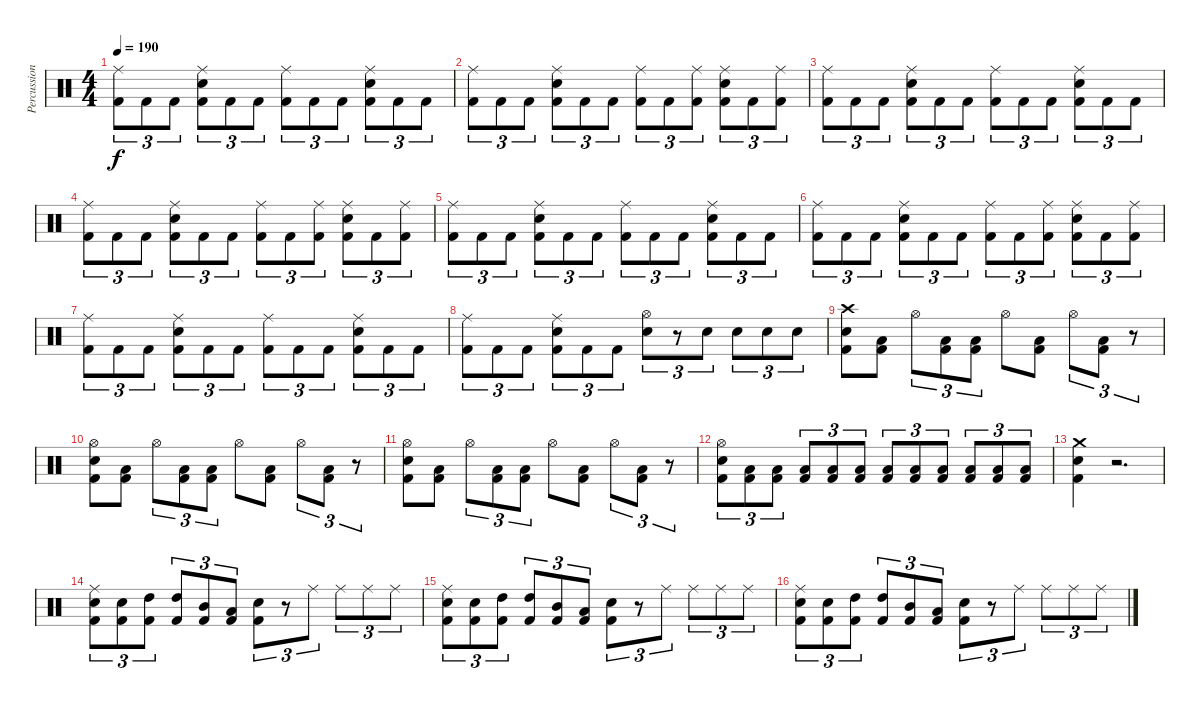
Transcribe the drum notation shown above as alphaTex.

\track ("Percussions" "Percussion") {instrument percussion}
\staff {score}
\articulation defaults
\ts (4 4)
\tempo 190
\clef neutral
\ks c
("Ride (middle)" "Kick (hit) 2").8{tu (3 2) dy f} "Kick (hit) 2".8{tu (3 2)} "Kick (hit) 2".8{tu (3 2)} ("Ride (middle)" "Snare (hit) 2" "Kick (hit) 2").8{tu (3 2)} "Kick (hit) 2".8{tu (3 2)} "Kick (hit) 2".8{tu (3 2)} ("Ride (middle)" "Kick (hit) 2").8{tu (3 2)} "Kick (hit) 2".8{tu (3 2)} "Kick (hit) 2".8{tu (3 2)} ("Ride (middle)" "Snare (hit) 2" "Kick (hit) 2").8{tu (3 2)} "Kick (hit) 2".8{tu (3 2)} "Kick (hit) 2".8{tu (3 2)} |
("Ride (middle)" "Kick (hit) 2").8{tu (3 2)} "Kick (hit) 2".8{tu (3 2)} "Kick (hit) 2".8{tu (3 2)} ("Ride (middle)" "Snare (hit) 2" "Kick (hit) 2").8{tu (3 2)} "Kick (hit) 2".8{tu (3 2)} "Kick (hit) 2".8{tu (3 2)} ("Ride (middle)" "Kick (hit) 2").8{tu (3 2)} "Kick (hit) 2".8{tu (3 2)} ("Ride (middle)" "Kick (hit) 2").8{tu (3 2)} ("Ride (middle)" "Snare (hit) 2" "Kick (hit) 2").8{tu (3 2)} "Kick (hit) 2".8{tu (3 2)} ("Ride (middle)" "Kick (hit) 2").8{tu (3 2)} |
("Ride (middle)" "Kick (hit) 2").8{tu (3 2)} "Kick (hit) 2".8{tu (3 2)} "Kick (hit) 2".8{tu (3 2)} ("Ride (middle)" "Snare (hit) 2" "Kick (hit) 2").8{tu (3 2)} "Kick (hit) 2".8{tu (3 2)} "Kick (hit) 2".8{tu (3 2)} ("Ride (middle)" "Kick (hit) 2").8{tu (3 2)} "Kick (hit) 2".8{tu (3 2)} "Kick (hit) 2".8{tu (3 2)} ("Ride (middle)" "Snare (hit) 2" "Kick (hit) 2").8{tu (3 2)} "Kick (hit) 2".8{tu (3 2)} "Kick (hit) 2".8{tu (3 2)} |
("Ride (middle)" "Kick (hit) 2").8{tu (3 2)} "Kick (hit) 2".8{tu (3 2)} "Kick (hit) 2".8{tu (3 2)} ("Ride (middle)" "Snare (hit) 2" "Kick (hit) 2").8{tu (3 2)} "Kick (hit) 2".8{tu (3 2)} "Kick (hit) 2".8{tu (3 2)} ("Ride (middle)" "Kick (hit) 2").8{tu (3 2)} "Kick (hit) 2".8{tu (3 2)} ("Ride (middle)" "Kick (hit) 2").8{tu (3 2)} ("Ride (middle)" "Snare (hit) 2" "Kick (hit) 2").8{tu (3 2)} "Kick (hit) 2".8{tu (3 2)} ("Ride (middle)" "Kick (hit) 2").8{tu (3 2)} |
("Ride (middle)" "Kick (hit) 2").8{tu (3 2)} "Kick (hit) 2".8{tu (3 2)} "Kick (hit) 2".8{tu (3 2)} ("Ride (middle)" "Snare (hit) 2" "Kick (hit) 2").8{tu (3 2)} "Kick (hit) 2".8{tu (3 2)} "Kick (hit) 2".8{tu (3 2)} ("Ride (middle)" "Kick (hit) 2").8{tu (3 2)} "Kick (hit) 2".8{tu (3 2)} "Kick (hit) 2".8{tu (3 2)} ("Ride (middle)" "Snare (hit) 2" "Kick (hit) 2").8{tu (3 2)} "Kick (hit) 2".8{tu (3 2)} "Kick (hit) 2".8{tu (3 2)} |
("Ride (middle)" "Kick (hit) 2").8{tu (3 2)} "Kick (hit) 2".8{tu (3 2)} "Kick (hit) 2".8{tu (3 2)} ("Ride (middle)" "Snare (hit) 2" "Kick (hit) 2").8{tu (3 2)} "Kick (hit) 2".8{tu (3 2)} "Kick (hit) 2".8{tu (3 2)} ("Ride (middle)" "Kick (hit) 2").8{tu (3 2)} "Kick (hit) 2".8{tu (3 2)} ("Ride (middle)" "Kick (hit) 2").8{tu (3 2)} ("Ride (middle)" "Snare (hit) 2" "Kick (hit) 2").8{tu (3 2)} "Kick (hit) 2".8{tu (3 2)} ("Ride (middle)" "Kick (hit) 2").8{tu (3 2)} |
("Ride (middle)" "Kick (hit) 2").8{tu (3 2)} "Kick (hit) 2".8{tu (3 2)} "Kick (hit) 2".8{tu (3 2)} ("Ride (middle)" "Snare (hit) 2" "Kick (hit) 2").8{tu (3 2)} "Kick (hit) 2".8{tu (3 2)} "Kick (hit) 2".8{tu (3 2)} ("Ride (middle)" "Kick (hit) 2").8{tu (3 2)} "Kick (hit) 2".8{tu (3 2)} "Kick (hit) 2".8{tu (3 2)} ("Ride (middle)" "Snare (hit) 2" "Kick (hit) 2").8{tu (3 2)} "Kick (hit) 2".8{tu (3 2)} "Kick (hit) 2".8{tu (3 2)} |
("Ride (middle)" "Kick (hit) 2").8{tu (3 2)} "Kick (hit) 2".8{tu (3 2)} "Kick (hit) 2".8{tu (3 2)} ("Ride (middle)" "Snare (hit) 2" "Kick (hit) 2").8{tu (3 2)} "Kick (hit) 2".8{tu (3 2)} "Kick (hit) 2".8{tu (3 2)} ("Hi-Hat (open)" "Snare (hit) 2").8{tu (3 2)} r.8{tu (3 2)} "Snare (hit) 2".8{tu (3 2)} "Snare (hit) 2".8{tu (3 2)} "Snare (hit) 2".8{tu (3 2)} "Snare (hit) 2".8{tu (3 2)} |
("Crash high (hit)" "Snare (hit) 2" "Kick (hit) 2").8 ("Low Floor Tom (hit)" "Kick (hit) 2").8 "Hi-Hat (open)".8{tu (3 2)} ("Low Floor Tom (hit)" "Kick (hit) 2").8{tu (3 2)} ("Low Floor Tom (hit)" "Kick (hit) 2").8{tu (3 2)} "Hi-Hat (open)".8 ("Low Floor Tom (hit)" "Kick (hit) 2").8 "Hi-Hat (open)".8{tu (3 2)} ("Low Floor Tom (hit)" "Kick (hit) 2").8{tu (3 2)} r.8{tu (3 2)} |
("Hi-Hat (open)" "Snare (hit) 2" "Kick (hit) 2").8 ("Low Floor Tom (hit)" "Kick (hit) 2").8 "Hi-Hat (open)".8{tu (3 2)} ("Low Floor Tom (hit)" "Kick (hit) 2").8{tu (3 2)} ("Low Floor Tom (hit)" "Kick (hit) 2").8{tu (3 2)} "Hi-Hat (open)".8 ("Low Floor Tom (hit)" "Kick (hit) 2").8 "Hi-Hat (open)".8{tu (3 2)} ("Low Floor Tom (hit)" "Kick (hit) 2").8{tu (3 2)} r.8{tu (3 2)} |
("Hi-Hat (open)" "Snare (hit) 2" "Kick (hit) 2").8 ("Low Floor Tom (hit)" "Kick (hit) 2").8 "Hi-Hat (open)".8{tu (3 2)} ("Low Floor Tom (hit)" "Kick (hit) 2").8{tu (3 2)} ("Low Floor Tom (hit)" "Kick (hit) 2").8{tu (3 2)} "Hi-Hat (open)".8 ("Low Floor Tom (hit)" "Kick (hit) 2").8 "Hi-Hat (open)".8{tu (3 2)} ("Low Floor Tom (hit)" "Kick (hit) 2").8{tu (3 2)} r.8{tu (3 2)} |
("Hi-Hat (open)" "Snare (hit) 2" "Kick (hit) 2").8{tu (3 2)} ("Low Floor Tom (hit)" "Kick (hit) 2").8{tu (3 2)} ("Low Floor Tom (hit)" "Kick (hit) 2").8{tu (3 2)} ("Low Floor Tom (hit)" "Kick (hit) 2").8{tu (3 2)} ("Low Floor Tom (hit)" "Kick (hit) 2").8{tu (3 2)} ("Low Floor Tom (hit)" "Kick (hit) 2").8{tu (3 2)} ("Low Floor Tom (hit)" "Kick (hit) 2").8{tu (3 2)} ("Low Floor Tom (hit)" "Kick (hit) 2").8{tu (3 2)} ("Low Floor Tom (hit)" "Kick (hit) 2").8{tu (3 2)} ("Low Floor Tom (hit)" "Kick (hit) 2").8{tu (3 2)} ("Low Floor Tom (hit)" "Kick (hit) 2").8{tu (3 2)} ("Low Floor Tom (hit)" "Kick (hit) 2").8{tu (3 2)} |
("Crash medium (hit)" "Snare (hit) 2" "Kick (hit) 2").4 r.2{d} |
("Ride (middle)" "Snare (hit) 2" "Kick (hit) 2").8{tu (3 2)} ("Snare (hit) 2" "Kick (hit) 2").8{tu (3 2)} ("High Tom (hit)" "Kick (hit) 2").8{tu (3 2)} ("High Tom (hit)" "Kick (hit) 2").8{tu (3 2)} ("Mid Tom (hit)" "Kick (hit) 2").8{tu (3 2)} ("Low Tom (hit)" "Kick (hit) 2").8{tu (3 2)} ("Snare (hit) 2" "Kick (hit) 2").8{tu (3 2)} r.8{tu (3 2)} "Ride (middle)".8{tu (3 2)} "Ride (middle)".8{tu (3 2)} "Ride (middle)".8{tu (3 2)} "Ride (middle)".8{tu (3 2)} |
("Ride (middle)" "Snare (hit) 2" "Kick (hit) 2").8{tu (3 2)} ("Snare (hit) 2" "Kick (hit) 2").8{tu (3 2)} ("High Tom (hit)" "Kick (hit) 2").8{tu (3 2)} ("High Tom (hit)" "Kick (hit) 2").8{tu (3 2)} ("Mid Tom (hit)" "Kick (hit) 2").8{tu (3 2)} ("Low Tom (hit)" "Kick (hit) 2").8{tu (3 2)} ("Snare (hit) 2" "Kick (hit) 2").8{tu (3 2)} r.8{tu (3 2)} "Ride (middle)".8{tu (3 2)} "Ride (middle)".8{tu (3 2)} "Ride (middle)".8{tu (3 2)} "Ride (middle)".8{tu (3 2)} |
("Ride (middle)" "Snare (hit) 2" "Kick (hit) 2").8{tu (3 2)} ("Snare (hit) 2" "Kick (hit) 2").8{tu (3 2)} ("High Tom (hit)" "Kick (hit) 2").8{tu (3 2)} ("High Tom (hit)" "Kick (hit) 2").8{tu (3 2)} ("Mid Tom (hit)" "Kick (hit) 2").8{tu (3 2)} ("Low Tom (hit)" "Kick (hit) 2").8{tu (3 2)} ("Snare (hit) 2" "Kick (hit) 2").8{tu (3 2)} r.8{tu (3 2)} "Ride (middle)".8{tu (3 2)} "Ride (middle)".8{tu (3 2)} "Ride (middle)".8{tu (3 2)} "Ride (middle)".8{tu (3 2)}
